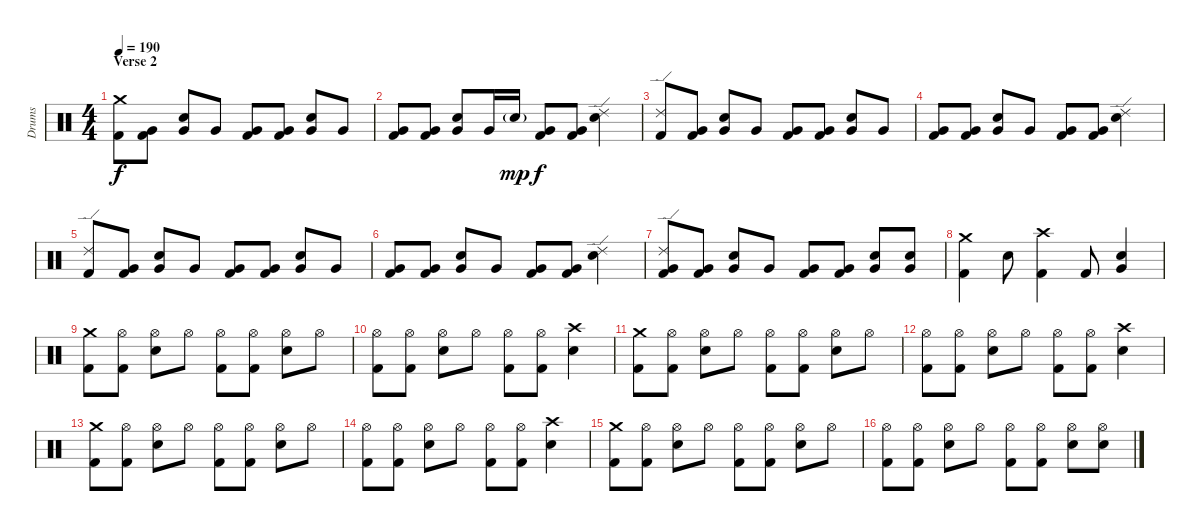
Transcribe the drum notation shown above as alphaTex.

\track ("Drums" "Drums") {instrument percussion}
\staff {score}
\articulation defaults
\ts (4 4)
\section ("" "Verse 2")
\tempo 190
\clef neutral
\ks c
("Crash medium (hit)" "Kick (hit) 2").8{dy f} ("Very Low Tom (hit)" "Kick (hit) 2").8 ("Electric Snare (hit)" "Very Low Tom (hit)").8 "Very Low Tom (hit)".8 ("Very Low Tom (hit)" "Kick (hit) 2").8 ("Very Low Tom (hit)" "Kick (hit) 2").8 ("Electric Snare (hit)" "Very Low Tom (hit)").8 "Very Low Tom (hit)".8 |
("Very Low Tom (hit)" "Kick (hit) 2").8 ("Very Low Tom (hit)" "Kick (hit) 2").8 ("Electric Snare (hit)" "Very Low Tom (hit)").8 "Very Low Tom (hit)".16 "Electric Snare (hit)"{g}.16{dy mp} ("Very Low Tom (hit)" "Kick (hit) 2").8{dy f} ("Very Low Tom (hit)" "Kick (hit) 2").8 ("Ride (edge) 2" "Electric Snare (hit)").4 |
("Ride (edge) 2" "Kick (hit) 2").8 ("Very Low Tom (hit)" "Kick (hit) 2").8 ("Electric Snare (hit)" "Very Low Tom (hit)").8 "Very Low Tom (hit)".8 ("Very Low Tom (hit)" "Kick (hit) 2").8 ("Very Low Tom (hit)" "Kick (hit) 2").8 ("Electric Snare (hit)" "Very Low Tom (hit)").8 "Very Low Tom (hit)".8 |
("Very Low Tom (hit)" "Kick (hit) 2").8 ("Very Low Tom (hit)" "Kick (hit) 2").8 ("Electric Snare (hit)" "Very Low Tom (hit)").8 "Very Low Tom (hit)".8 ("Very Low Tom (hit)" "Kick (hit) 2").8 ("Very Low Tom (hit)" "Kick (hit) 2").8 ("Ride (edge) 2" "Electric Snare (hit)").4 |
("Ride (edge) 2" "Kick (hit) 2").8 ("Very Low Tom (hit)" "Kick (hit) 2").8 ("Electric Snare (hit)" "Very Low Tom (hit)").8 "Very Low Tom (hit)".8 ("Very Low Tom (hit)" "Kick (hit) 2").8 ("Very Low Tom (hit)" "Kick (hit) 2").8 ("Electric Snare (hit)" "Very Low Tom (hit)").8 "Very Low Tom (hit)".8 |
("Very Low Tom (hit)" "Kick (hit) 2").8 ("Very Low Tom (hit)" "Kick (hit) 2").8 ("Electric Snare (hit)" "Very Low Tom (hit)").8 "Very Low Tom (hit)".8 ("Very Low Tom (hit)" "Kick (hit) 2").8 ("Very Low Tom (hit)" "Kick (hit) 2").8 ("Ride (edge) 2" "Electric Snare (hit)").4 |
("Ride (edge) 2" "Very Low Tom (hit)" "Kick (hit) 2").8 ("Very Low Tom (hit)" "Kick (hit) 2").8 ("Electric Snare (hit)" "Very Low Tom (hit)").8 "Very Low Tom (hit)".8 ("Very Low Tom (hit)" "Kick (hit) 2").8 ("Very Low Tom (hit)" "Kick (hit) 2").8 ("Electric Snare (hit)" "Very Low Tom (hit)").8 ("Electric Snare (hit)" "Very Low Tom (hit)").8 |
("Crash medium (hit)" "Kick (hit) 2").4 "Electric Snare (hit)".8 ("Crash high (hit)" "Kick (hit) 2").4 "Kick (hit) 2".8 ("Electric Snare (hit)" "Very Low Tom (hit)").4 |
("Crash medium (hit)" "Kick (hit) 2").8 ("Hi-Hat (open)" "Kick (hit) 2").8 ("Hi-Hat (open)" "Electric Snare (hit)").8 "Hi-Hat (open)".8 ("Hi-Hat (open)" "Kick (hit) 2").8 ("Hi-Hat (open)" "Kick (hit) 2").8 ("Hi-Hat (open)" "Electric Snare (hit)").8 "Hi-Hat (open)".8 |
("Hi-Hat (open)" "Kick (hit) 2").8 ("Hi-Hat (open)" "Kick (hit) 2").8 ("Hi-Hat (open)" "Electric Snare (hit)").8 "Hi-Hat (open)".8 ("Hi-Hat (open)" "Kick (hit) 2").8 ("Hi-Hat (open)" "Kick (hit) 2").8 ("Crash high (hit)" "Electric Snare (hit)").4 |
("Crash medium (hit)" "Kick (hit) 2").8 ("Hi-Hat (open)" "Kick (hit) 2").8 ("Hi-Hat (open)" "Electric Snare (hit)").8 "Hi-Hat (open)".8 ("Hi-Hat (open)" "Kick (hit) 2").8 ("Hi-Hat (open)" "Kick (hit) 2").8 ("Hi-Hat (open)" "Electric Snare (hit)").8 "Hi-Hat (open)".8 |
("Hi-Hat (open)" "Kick (hit) 2").8 ("Hi-Hat (open)" "Kick (hit) 2").8 ("Hi-Hat (open)" "Electric Snare (hit)").8 "Hi-Hat (open)".8 ("Hi-Hat (open)" "Kick (hit) 2").8 ("Hi-Hat (open)" "Kick (hit) 2").8 ("Crash high (hit)" "Electric Snare (hit)").4 |
("Crash medium (hit)" "Kick (hit) 2").8 ("Hi-Hat (open)" "Kick (hit) 2").8 ("Hi-Hat (open)" "Electric Snare (hit)").8 "Hi-Hat (open)".8 ("Hi-Hat (open)" "Kick (hit) 2").8 ("Hi-Hat (open)" "Kick (hit) 2").8 ("Hi-Hat (open)" "Electric Snare (hit)").8 "Hi-Hat (open)".8 |
("Hi-Hat (open)" "Kick (hit) 2").8 ("Hi-Hat (open)" "Kick (hit) 2").8 ("Hi-Hat (open)" "Electric Snare (hit)").8 "Hi-Hat (open)".8 ("Hi-Hat (open)" "Kick (hit) 2").8 ("Hi-Hat (open)" "Kick (hit) 2").8 ("Crash high (hit)" "Electric Snare (hit)").4 |
("Crash medium (hit)" "Kick (hit) 2").8 ("Hi-Hat (open)" "Kick (hit) 2").8 ("Hi-Hat (open)" "Electric Snare (hit)").8 "Hi-Hat (open)".8 ("Hi-Hat (open)" "Kick (hit) 2").8 ("Hi-Hat (open)" "Kick (hit) 2").8 ("Hi-Hat (open)" "Electric Snare (hit)").8 "Hi-Hat (open)".8 |
("Hi-Hat (open)" "Kick (hit) 2").8 ("Hi-Hat (open)" "Kick (hit) 2").8 ("Hi-Hat (open)" "Electric Snare (hit)").8 "Hi-Hat (open)".8 ("Hi-Hat (open)" "Kick (hit) 2").8 ("Hi-Hat (open)" "Kick (hit) 2").8 ("Hi-Hat (open)" "Electric Snare (hit)").8 ("Hi-Hat (open)" "Electric Snare (hit)").8
